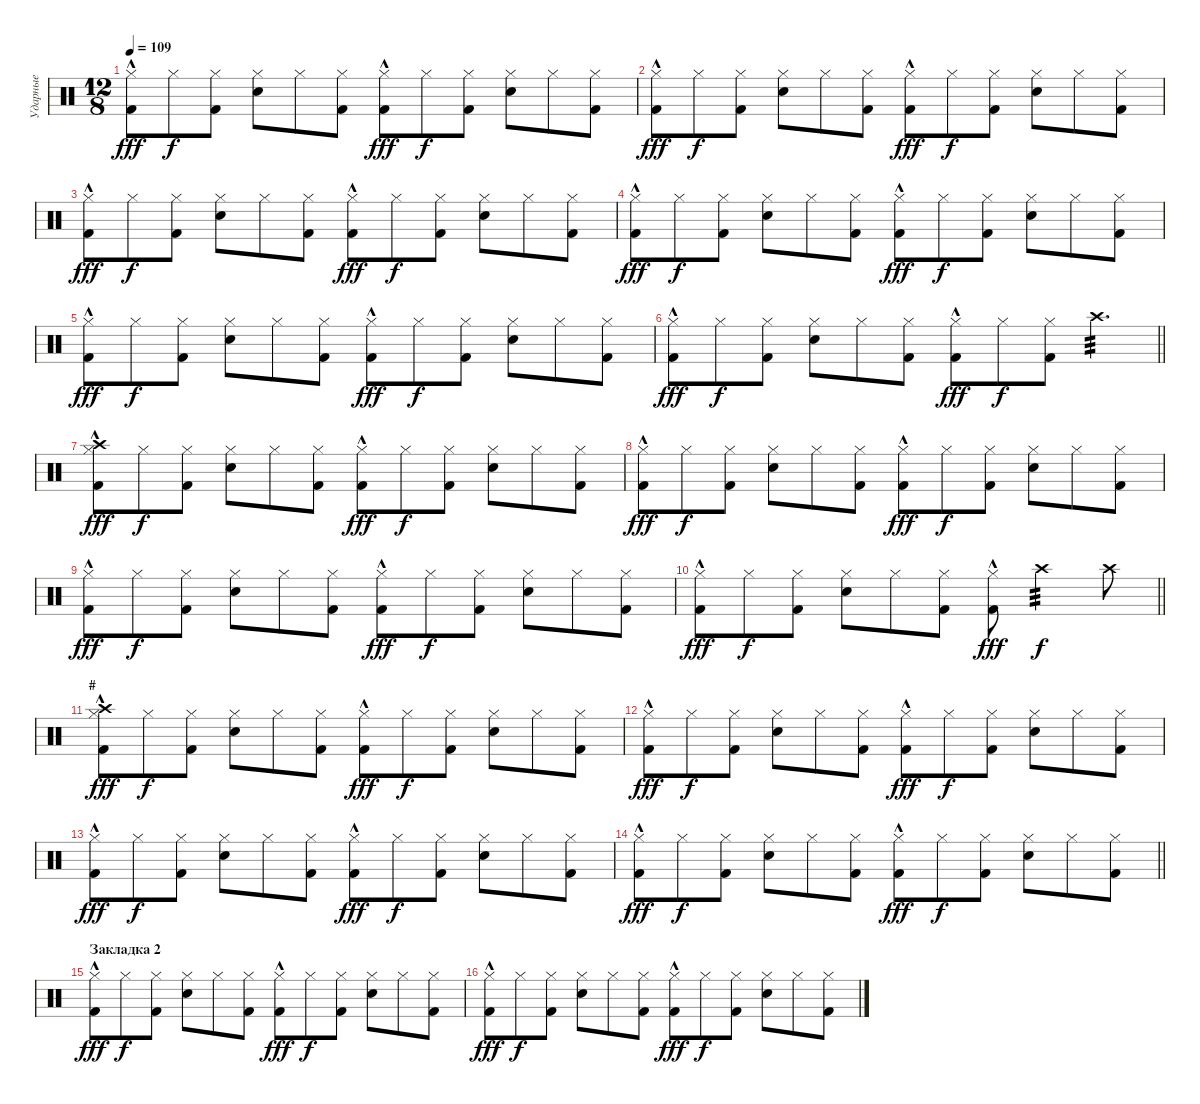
\track ("Ударные" "Ударные") {instrument percussion}
\staff {score}
\articulation defaults
\ts (12 8)
\tempo 109
\clef neutral
\ks c
("Hi-Hat (closed)" "Kick (hit) 2"{hac}).8{dy fff} "Hi-Hat (closed)".8{dy f} ("Hi-Hat (closed)" "Kick (hit) 2").8 ("Hi-Hat (closed)" "Electric Snare (hit)").8 "Hi-Hat (closed)".8 ("Hi-Hat (closed)" "Kick (hit) 2").8 ("Hi-Hat (closed)" "Kick (hit) 2"{hac}).8{dy fff} "Hi-Hat (closed)".8{dy f} ("Hi-Hat (closed)" "Kick (hit) 2").8 ("Hi-Hat (closed)" "Electric Snare (hit)").8 "Hi-Hat (closed)".8 ("Hi-Hat (closed)" "Kick (hit) 2").8 |
("Hi-Hat (closed)" "Kick (hit) 2"{hac}).8{dy fff} "Hi-Hat (closed)".8{dy f} ("Hi-Hat (closed)" "Kick (hit) 2").8 ("Hi-Hat (closed)" "Electric Snare (hit)").8 "Hi-Hat (closed)".8 ("Hi-Hat (closed)" "Kick (hit) 2").8 ("Hi-Hat (closed)" "Kick (hit) 2"{hac}).8{dy fff} "Hi-Hat (closed)".8{dy f} ("Hi-Hat (closed)" "Kick (hit) 2").8 ("Hi-Hat (closed)" "Electric Snare (hit)").8 "Hi-Hat (closed)".8 ("Hi-Hat (closed)" "Kick (hit) 2").8 |
("Hi-Hat (closed)" "Kick (hit) 2"{hac}).8{dy fff} "Hi-Hat (closed)".8{dy f} ("Hi-Hat (closed)" "Kick (hit) 2").8 ("Hi-Hat (closed)" "Electric Snare (hit)").8 "Hi-Hat (closed)".8 ("Hi-Hat (closed)" "Kick (hit) 2").8 ("Hi-Hat (closed)" "Kick (hit) 2"{hac}).8{dy fff} "Hi-Hat (closed)".8{dy f} ("Hi-Hat (closed)" "Kick (hit) 2").8 ("Hi-Hat (closed)" "Electric Snare (hit)").8 "Hi-Hat (closed)".8 ("Hi-Hat (closed)" "Kick (hit) 2").8 |
("Hi-Hat (closed)" "Kick (hit) 2"{hac}).8{dy fff} "Hi-Hat (closed)".8{dy f} ("Hi-Hat (closed)" "Kick (hit) 2").8 ("Hi-Hat (closed)" "Electric Snare (hit)").8 "Hi-Hat (closed)".8 ("Hi-Hat (closed)" "Kick (hit) 2").8 ("Hi-Hat (closed)" "Kick (hit) 2"{hac}).8{dy fff} "Hi-Hat (closed)".8{dy f} ("Hi-Hat (closed)" "Kick (hit) 2").8 ("Hi-Hat (closed)" "Electric Snare (hit)").8 "Hi-Hat (closed)".8 ("Hi-Hat (closed)" "Kick (hit) 2").8 |
("Hi-Hat (closed)" "Kick (hit) 2"{hac}).8{dy fff} "Hi-Hat (closed)".8{dy f} ("Hi-Hat (closed)" "Kick (hit) 2").8 ("Hi-Hat (closed)" "Electric Snare (hit)").8 "Hi-Hat (closed)".8 ("Hi-Hat (closed)" "Kick (hit) 2").8 ("Hi-Hat (closed)" "Kick (hit) 2"{hac}).8{dy fff} "Hi-Hat (closed)".8{dy f} ("Hi-Hat (closed)" "Kick (hit) 2").8 ("Hi-Hat (closed)" "Electric Snare (hit)").8 "Hi-Hat (closed)".8 ("Hi-Hat (closed)" "Kick (hit) 2").8 |
\barLineRight lightlight
("Hi-Hat (closed)" "Kick (hit) 2"{hac}).8{dy fff} "Hi-Hat (closed)".8{dy f} ("Hi-Hat (closed)" "Kick (hit) 2").8 ("Hi-Hat (closed)" "Electric Snare (hit)").8 "Hi-Hat (closed)".8 ("Hi-Hat (closed)" "Kick (hit) 2").8 ("Hi-Hat (closed)" "Kick (hit) 2"{hac}).8{dy fff} "Hi-Hat (closed)".8{dy f} ("Hi-Hat (closed)" "Kick (hit) 2").8{volume 0} "Crash high (hit)".4{d tp 3 volume 9} |
("Hi-Hat (closed)" "Kick (hit) 2"{hac} "Crash high (hit)").8{dy fff} "Hi-Hat (closed)".8{dy f} ("Hi-Hat (closed)" "Kick (hit) 2").8 ("Hi-Hat (closed)" "Electric Snare (hit)").8 "Hi-Hat (closed)".8 ("Hi-Hat (closed)" "Kick (hit) 2").8 ("Hi-Hat (closed)" "Kick (hit) 2"{hac}).8{dy fff} "Hi-Hat (closed)".8{dy f} ("Hi-Hat (closed)" "Kick (hit) 2").8 ("Hi-Hat (closed)" "Electric Snare (hit)").8 "Hi-Hat (closed)".8 ("Hi-Hat (closed)" "Kick (hit) 2").8 |
("Hi-Hat (closed)" "Kick (hit) 2"{hac}).8{dy fff} "Hi-Hat (closed)".8{dy f} ("Hi-Hat (closed)" "Kick (hit) 2").8 ("Hi-Hat (closed)" "Electric Snare (hit)").8 "Hi-Hat (closed)".8 ("Hi-Hat (closed)" "Kick (hit) 2").8 ("Hi-Hat (closed)" "Kick (hit) 2"{hac}).8{dy fff} "Hi-Hat (closed)".8{dy f} ("Hi-Hat (closed)" "Kick (hit) 2").8 ("Hi-Hat (closed)" "Electric Snare (hit)").8 "Hi-Hat (closed)".8 ("Hi-Hat (closed)" "Kick (hit) 2").8 |
("Hi-Hat (closed)" "Kick (hit) 2"{hac}).8{dy fff} "Hi-Hat (closed)".8{dy f} ("Hi-Hat (closed)" "Kick (hit) 2").8 ("Hi-Hat (closed)" "Electric Snare (hit)").8 "Hi-Hat (closed)".8 ("Hi-Hat (closed)" "Kick (hit) 2").8 ("Hi-Hat (closed)" "Kick (hit) 2"{hac}).8{dy fff} "Hi-Hat (closed)".8{dy f} ("Hi-Hat (closed)" "Kick (hit) 2").8 ("Hi-Hat (closed)" "Electric Snare (hit)").8 "Hi-Hat (closed)".8 ("Hi-Hat (closed)" "Kick (hit) 2").8 |
\barLineRight lightlight
("Hi-Hat (closed)" "Kick (hit) 2"{hac}).8{dy fff} "Hi-Hat (closed)".8{dy f} ("Hi-Hat (closed)" "Kick (hit) 2").8 ("Hi-Hat (closed)" "Electric Snare (hit)").8 "Hi-Hat (closed)".8 ("Hi-Hat (closed)" "Kick (hit) 2").8 ("Hi-Hat (closed)" "Kick (hit) 2"{hac}).8{dy fff} "Crash high (hit)".2{tp 3 dy f volume 9} "Crash high (hit)".8 |
\section ("" "#")
("Hi-Hat (closed)" "Kick (hit) 2"{hac} "Crash high (hit)").8{dy fff} "Hi-Hat (closed)".8{dy f} ("Hi-Hat (closed)" "Kick (hit) 2").8 ("Hi-Hat (closed)" "Electric Snare (hit)").8 "Hi-Hat (closed)".8 ("Hi-Hat (closed)" "Kick (hit) 2").8 ("Hi-Hat (closed)" "Kick (hit) 2"{hac}).8{dy fff} "Hi-Hat (closed)".8{dy f} ("Hi-Hat (closed)" "Kick (hit) 2").8 ("Hi-Hat (closed)" "Electric Snare (hit)").8 "Hi-Hat (closed)".8 ("Hi-Hat (closed)" "Kick (hit) 2").8 |
("Hi-Hat (closed)" "Kick (hit) 2"{hac}).8{dy fff} "Hi-Hat (closed)".8{dy f} ("Hi-Hat (closed)" "Kick (hit) 2").8 ("Hi-Hat (closed)" "Electric Snare (hit)").8 "Hi-Hat (closed)".8 ("Hi-Hat (closed)" "Kick (hit) 2").8 ("Hi-Hat (closed)" "Kick (hit) 2"{hac}).8{dy fff} "Hi-Hat (closed)".8{dy f} ("Hi-Hat (closed)" "Kick (hit) 2").8 ("Hi-Hat (closed)" "Electric Snare (hit)").8 "Hi-Hat (closed)".8 ("Hi-Hat (closed)" "Kick (hit) 2").8 |
("Hi-Hat (closed)" "Kick (hit) 2"{hac}).8{dy fff} "Hi-Hat (closed)".8{dy f} ("Hi-Hat (closed)" "Kick (hit) 2").8 ("Hi-Hat (closed)" "Electric Snare (hit)").8 "Hi-Hat (closed)".8 ("Hi-Hat (closed)" "Kick (hit) 2").8 ("Hi-Hat (closed)" "Kick (hit) 2"{hac}).8{dy fff} "Hi-Hat (closed)".8{dy f} ("Hi-Hat (closed)" "Kick (hit) 2").8 ("Hi-Hat (closed)" "Electric Snare (hit)").8 "Hi-Hat (closed)".8 ("Hi-Hat (closed)" "Kick (hit) 2").8 |
\barLineRight lightlight
("Hi-Hat (closed)" "Kick (hit) 2"{hac}).8{dy fff} "Hi-Hat (closed)".8{dy f} ("Hi-Hat (closed)" "Kick (hit) 2").8 ("Hi-Hat (closed)" "Electric Snare (hit)").8 "Hi-Hat (closed)".8 ("Hi-Hat (closed)" "Kick (hit) 2").8 ("Hi-Hat (closed)" "Kick (hit) 2"{hac}).8{dy fff} "Hi-Hat (closed)".8{dy f} ("Hi-Hat (closed)" "Kick (hit) 2").8 ("Hi-Hat (closed)" "Electric Snare (hit)").8 "Hi-Hat (closed)".8 ("Hi-Hat (closed)" "Kick (hit) 2").8 |
\section ("" "Закладка 2")
("Hi-Hat (closed)" "Kick (hit) 2"{hac}).8{dy fff} "Hi-Hat (closed)".8{dy f} ("Hi-Hat (closed)" "Kick (hit) 2").8 ("Hi-Hat (closed)" "Electric Snare (hit)").8 "Hi-Hat (closed)".8 ("Hi-Hat (closed)" "Kick (hit) 2").8 ("Hi-Hat (closed)" "Kick (hit) 2"{hac}).8{dy fff} "Hi-Hat (closed)".8{dy f} ("Hi-Hat (closed)" "Kick (hit) 2").8 ("Hi-Hat (closed)" "Electric Snare (hit)").8 "Hi-Hat (closed)".8 ("Hi-Hat (closed)" "Kick (hit) 2").8 |
("Hi-Hat (closed)" "Kick (hit) 2"{hac}).8{dy fff} "Hi-Hat (closed)".8{dy f} ("Hi-Hat (closed)" "Kick (hit) 2").8 ("Hi-Hat (closed)" "Electric Snare (hit)").8 "Hi-Hat (closed)".8 ("Hi-Hat (closed)" "Kick (hit) 2").8 ("Hi-Hat (closed)" "Kick (hit) 2"{hac}).8{dy fff} "Hi-Hat (closed)".8{dy f} ("Hi-Hat (closed)" "Kick (hit) 2").8 ("Hi-Hat (closed)" "Electric Snare (hit)").8 "Hi-Hat (closed)".8 ("Hi-Hat (closed)" "Kick (hit) 2").8
